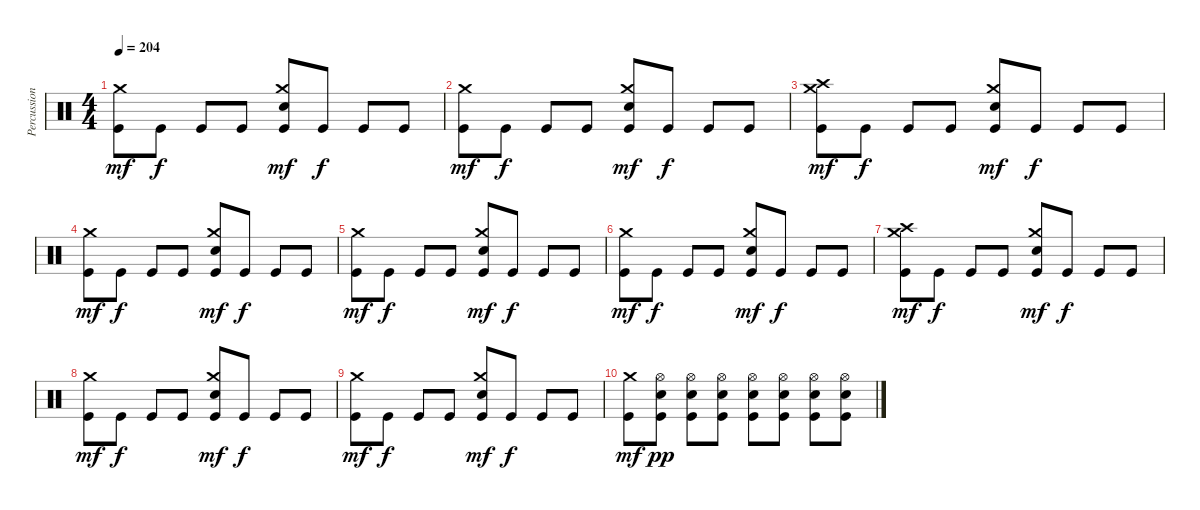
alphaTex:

\track ("Percussions" "Percussion") {instrument percussion}
\staff {score}
\articulation defaults
\ts (4 4)
\tempo 204
\clef neutral
\ks c
("Kick (hit)" "Crash medium (hit)").8{dy mf} "Kick (hit)".8{dy f} "Kick (hit)".8 "Kick (hit)".8 ("Kick (hit)" "Electric Snare (hit)" "Crash medium (hit)").8{dy mf} "Kick (hit)".8{dy f} "Kick (hit)".8 "Kick (hit)".8 |
("Kick (hit)" "Crash medium (hit)").8{dy mf} "Kick (hit)".8{dy f} "Kick (hit)".8 "Kick (hit)".8 ("Kick (hit)" "Electric Snare (hit)" "Crash medium (hit)").8{dy mf} "Kick (hit)".8{dy f} "Kick (hit)".8 "Kick (hit)".8 |
("Kick (hit)" "Crash medium (hit)" "Crash high (hit)").8{dy mf} "Kick (hit)".8{dy f} "Kick (hit)".8 "Kick (hit)".8 ("Kick (hit)" "Electric Snare (hit)" "Crash medium (hit)").8{dy mf} "Kick (hit)".8{dy f} "Kick (hit)".8 "Kick (hit)".8 |
("Kick (hit)" "Crash medium (hit)").8{dy mf} "Kick (hit)".8{dy f} "Kick (hit)".8 "Kick (hit)".8 ("Kick (hit)" "Electric Snare (hit)" "Crash medium (hit)").8{dy mf} "Kick (hit)".8{dy f} "Kick (hit)".8 "Kick (hit)".8 |
("Kick (hit)" "Crash medium (hit)").8{dy mf} "Kick (hit)".8{dy f} "Kick (hit)".8 "Kick (hit)".8 ("Kick (hit)" "Electric Snare (hit)" "Crash medium (hit)").8{dy mf} "Kick (hit)".8{dy f} "Kick (hit)".8 "Kick (hit)".8 |
("Kick (hit)" "Crash medium (hit)").8{dy mf} "Kick (hit)".8{dy f} "Kick (hit)".8 "Kick (hit)".8 ("Kick (hit)" "Electric Snare (hit)" "Crash medium (hit)").8{dy mf} "Kick (hit)".8{dy f} "Kick (hit)".8 "Kick (hit)".8 |
("Kick (hit)" "Crash medium (hit)" "Crash high (hit)").8{dy mf} "Kick (hit)".8{dy f} "Kick (hit)".8 "Kick (hit)".8 ("Kick (hit)" "Electric Snare (hit)" "Crash medium (hit)").8{dy mf} "Kick (hit)".8{dy f} "Kick (hit)".8 "Kick (hit)".8 |
("Kick (hit)" "Crash medium (hit)").8{dy mf} "Kick (hit)".8{dy f} "Kick (hit)".8 "Kick (hit)".8 ("Kick (hit)" "Electric Snare (hit)" "Crash medium (hit)").8{dy mf} "Kick (hit)".8{dy f} "Kick (hit)".8 "Kick (hit)".8 |
("Kick (hit)" "Crash medium (hit)").8{dy mf} "Kick (hit)".8{dy f} "Kick (hit)".8 "Kick (hit)".8 ("Kick (hit)" "Electric Snare (hit)" "Crash medium (hit)").8{dy mf} "Kick (hit)".8{dy f} "Kick (hit)".8 "Kick (hit)".8 |
("Kick (hit)" "Crash medium (hit)").8{dy mf} ("Kick (hit)" "Electric Snare (hit)" "Hi-Hat (open)").8{dy pp} ("Kick (hit)" "Electric Snare (hit)" "Hi-Hat (open)").8 ("Kick (hit)" "Electric Snare (hit)" "Hi-Hat (open)").8 ("Kick (hit)" "Electric Snare (hit)" "Hi-Hat (open)").8 ("Kick (hit)" "Electric Snare (hit)" "Hi-Hat (open)").8 ("Kick (hit)" "Electric Snare (hit)" "Hi-Hat (open)").8 ("Kick (hit)" "Electric Snare (hit)" "Hi-Hat (open)").8
